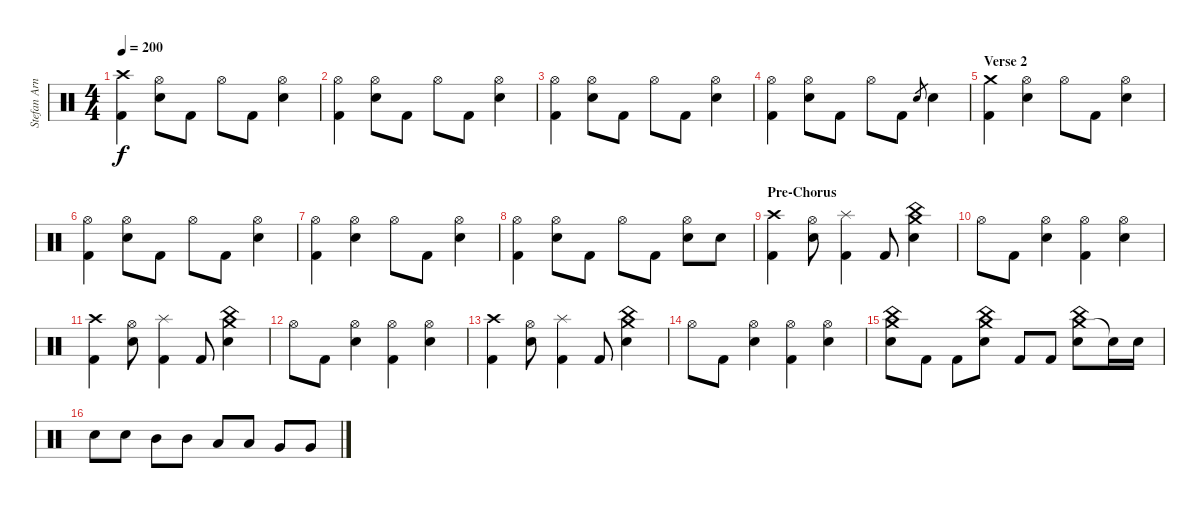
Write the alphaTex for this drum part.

\track ("Stefan Arnold" "Stefan Arn") {instrument percussion}
\staff {score}
\articulation defaults
\ts (4 4)
\tempo 200
\clef neutral
\ks c
("Crash high (hit)" "Kick (hit) 2").4{dy f} ("Hi-Hat (open)" "Electric Snare (hit)").8 "Kick (hit) 2".8 "Hi-Hat (open)".8 "Kick (hit) 2".8 ("Hi-Hat (open)" "Electric Snare (hit)").4 |
("Hi-Hat (open)" "Kick (hit) 2").4 ("Hi-Hat (open)" "Electric Snare (hit)").8 "Kick (hit) 2".8 "Hi-Hat (open)".8 "Kick (hit) 2".8 ("Hi-Hat (open)" "Electric Snare (hit)").4 |
("Hi-Hat (open)" "Kick (hit) 2").4 ("Hi-Hat (open)" "Electric Snare (hit)").8 "Kick (hit) 2".8 "Hi-Hat (open)".8 "Kick (hit) 2".8 ("Hi-Hat (open)" "Electric Snare (hit)").4 |
("Hi-Hat (open)" "Kick (hit) 2").4 ("Hi-Hat (open)" "Electric Snare (hit)").8 "Kick (hit) 2".8 "Hi-Hat (open)".8 "Kick (hit) 2".8 "Electric Snare (hit)".8{gr} "Electric Snare (hit)".4 |
\section ("" "Verse 2")
("Crash medium (hit)" "Kick (hit) 2").4 ("Hi-Hat (open)" "Electric Snare (hit)").4 "Hi-Hat (open)".8 "Kick (hit) 2".8 ("Hi-Hat (open)" "Electric Snare (hit)").4 |
("Hi-Hat (open)" "Kick (hit) 2").4 ("Hi-Hat (open)" "Electric Snare (hit)").8 "Kick (hit) 2".8 "Hi-Hat (open)".8 "Kick (hit) 2".8 ("Hi-Hat (open)" "Electric Snare (hit)").4 |
("Hi-Hat (open)" "Kick (hit) 2").4 ("Hi-Hat (open)" "Electric Snare (hit)").4 "Hi-Hat (open)".8 "Kick (hit) 2".8 ("Hi-Hat (open)" "Electric Snare (hit)").4 |
("Hi-Hat (open)" "Kick (hit) 2").4 ("Hi-Hat (open)" "Electric Snare (hit)").8 "Kick (hit) 2".8 "Hi-Hat (open)".8 "Kick (hit) 2".8 ("Hi-Hat (open)" "Electric Snare (hit)").8 "Electric Snare (hit)".8 |
\section ("" "Pre-Chorus")
("Crash high (hit)" "Kick (hit) 2").4 ("Hi-Hat (open)" "Electric Snare (hit)").8 ("Splash (hit)" "Kick (hit) 2").4 "Kick (hit) 2".8 ("Crash medium (hit)" "China (hit)" "Electric Snare (hit)").4 |
"Hi-Hat (open)".8 "Kick (hit) 2".8 ("Hi-Hat (open)" "Electric Snare (hit)").4 ("Hi-Hat (open)" "Kick (hit) 2").4 ("Hi-Hat (open)" "Electric Snare (hit)").4 |
("Crash high (hit)" "Kick (hit) 2").4 ("Hi-Hat (open)" "Electric Snare (hit)").8 ("Splash (hit)" "Kick (hit) 2").4 "Kick (hit) 2".8 ("Crash medium (hit)" "China (hit)" "Electric Snare (hit)").4 |
"Hi-Hat (open)".8 "Kick (hit) 2".8 ("Hi-Hat (open)" "Electric Snare (hit)").4 ("Hi-Hat (open)" "Kick (hit) 2").4 ("Hi-Hat (open)" "Electric Snare (hit)").4 |
("Crash high (hit)" "Kick (hit) 2").4 ("Hi-Hat (open)" "Electric Snare (hit)").8 ("Splash (hit)" "Kick (hit) 2").4 "Kick (hit) 2".8 ("Crash medium (hit)" "China (hit)" "Electric Snare (hit)").4 |
"Hi-Hat (open)".8 "Kick (hit) 2".8 ("Hi-Hat (open)" "Electric Snare (hit)").4 ("Hi-Hat (open)" "Kick (hit) 2").4 ("Hi-Hat (open)" "Electric Snare (hit)").4 |
("Crash medium (hit)" "China (hit)" "Electric Snare (hit)").8 "Kick (hit) 2".8 "Kick (hit) 2".8 ("Crash medium (hit)" "China (hit)" "Electric Snare (hit)").8 "Kick (hit) 2".8 "Kick (hit) 2".8 ("Crash medium (hit)" "China (hit)" "Electric Snare (hit)").8 "Snare (hit)"{t}.16 "Electric Snare (hit)".16 |
"Electric Snare (hit)".8 "Electric Snare (hit)".8 "Mid Tom (hit)".8 "Mid Tom (hit)".8 "Low Tom (hit)".8 "Low Tom (hit)".8 "Very Low Tom (hit)".8 "Very Low Tom (hit)".8
